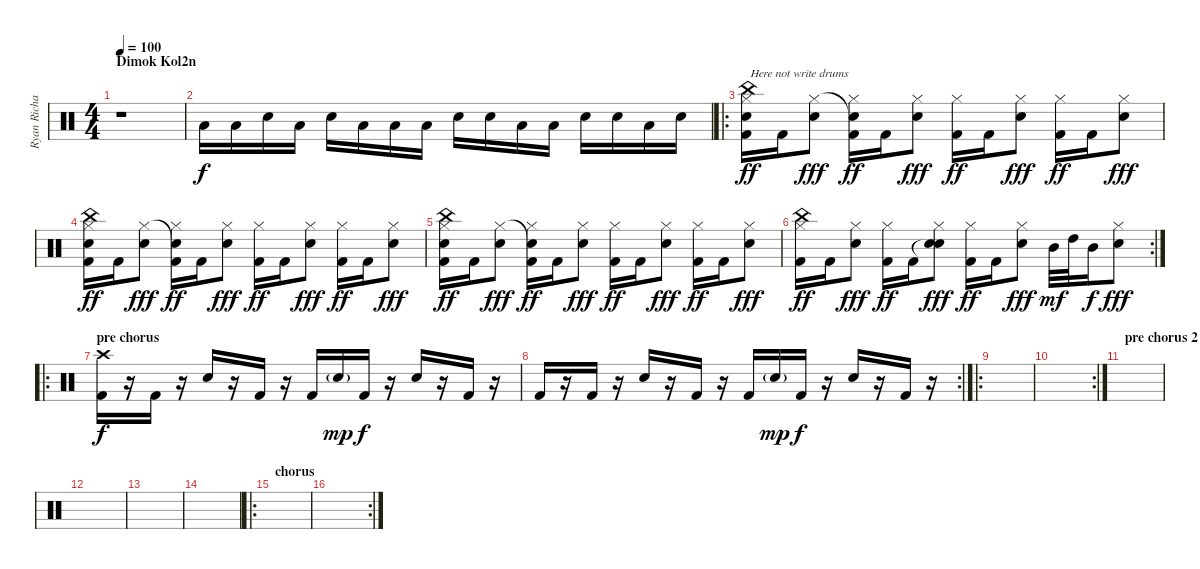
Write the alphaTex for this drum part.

\track ("Ryan Richards" "Ryan Richa") {instrument percussion}
\staff {score}
\articulation defaults
\ts (4 4)
\section ("" "Dimok Kol2n")
\tempo 100
\clef neutral
\ks c
r.1{dy f} |
"Low Tom (hit)".16 "Low Tom (hit)".16 "Snare (hit) 2".16 "Low Tom (hit)".16 "Snare (hit) 2".16 "Low Tom (hit)".16 "Low Tom (hit)".16 "Low Tom (hit)".16 "Snare (hit) 2".16 "Snare (hit) 2".16 "Low Tom (hit)".16 "Low Tom (hit)".16 "Snare (hit) 2".16 "Snare (hit) 2".16 "Low Tom (hit)".16 "Snare (hit) 2".16 |
\ro
("China (hit)" "Hi-Hat (closed)" "Snare (hit) 2" "Kick (hit) 2").16{txt "Here not write drums" dy ff} "Kick (hit) 2".16 ("Hi-Hat (closed)" "Electric Snare (hit)").8{dy fff} ("Snare (hit)"{t} "Hi-Hat (closed)" "Kick (hit) 2").16{dy ff} "Kick (hit) 2".16 ("Hi-Hat (closed)" "Electric Snare (hit)").8{dy fff} ("Hi-Hat (closed)" "Kick (hit) 2").16{dy ff} "Kick (hit) 2".16 ("Hi-Hat (closed)" "Electric Snare (hit)").8{dy fff} ("Hi-Hat (closed)" "Kick (hit) 2").16{dy ff} "Kick (hit) 2".16 ("Hi-Hat (closed)" "Electric Snare (hit)").8{dy fff} |
("China (hit)" "Hi-Hat (closed)" "Snare (hit) 2" "Kick (hit) 2").16{dy ff} "Kick (hit) 2".16 ("Hi-Hat (closed)" "Electric Snare (hit)").8{dy fff} ("Snare (hit)"{t} "Hi-Hat (closed)" "Kick (hit) 2").16{dy ff} "Kick (hit) 2".16 ("Hi-Hat (closed)" "Electric Snare (hit)").8{dy fff} ("Hi-Hat (closed)" "Kick (hit) 2").16{dy ff} "Kick (hit) 2".16 ("Hi-Hat (closed)" "Electric Snare (hit)").8{dy fff} ("Hi-Hat (closed)" "Kick (hit) 2").16{dy ff} "Kick (hit) 2".16 ("Hi-Hat (closed)" "Electric Snare (hit)").8{dy fff} |
("China (hit)" "Hi-Hat (closed)" "Snare (hit) 2" "Kick (hit) 2").16{dy ff} "Kick (hit) 2".16 ("Hi-Hat (closed)" "Electric Snare (hit)").8{dy fff} ("Snare (hit)"{t} "Hi-Hat (closed)" "Kick (hit) 2").16{dy ff} "Kick (hit) 2".16 ("Hi-Hat (closed)" "Electric Snare (hit)").8{dy fff} ("Hi-Hat (closed)" "Kick (hit) 2").16{dy ff} "Kick (hit) 2".16 ("Hi-Hat (closed)" "Electric Snare (hit)").8{dy fff} ("Hi-Hat (closed)" "Kick (hit) 2").16{dy ff} "Kick (hit) 2".16 ("Hi-Hat (closed)" "Electric Snare (hit)").8{dy fff} |
\rc 2
("China (hit)" "Hi-Hat (closed)" "Kick (hit) 2").16{dy ff} "Kick (hit) 2".16 ("Hi-Hat (closed)" "Electric Snare (hit)").8{dy fff} ("Hi-Hat (closed)" "Kick (hit) 2").16{dy ff} "Kick (hit) 2".16 ("Snare (hit)"{t} "Hi-Hat (closed)" "Electric Snare (hit)").8{dy fff} ("Hi-Hat (closed)" "Kick (hit) 2").16{dy ff} "Kick (hit) 2".16 ("Hi-Hat (closed)" "Electric Snare (hit)").8{dy fff} "Mid Tom (hit)".32{dy mf} "High Tom (hit)".32 "Mid Tom (hit)".16{dy f} ("Hi-Hat (closed)" "Electric Snare (hit)").8{dy fff} |
\ro
\section ("" "pre chorus")
("Crash high (hit)" "Kick (hit) 2").16{dy f} r.16 "Kick (hit) 2".16 r.16 "Snare (hit) 2".16 r.16 "Kick (hit) 2".16 r.16 "Kick (hit) 2".16 "Snare (hit) 2"{g}.16{dy mp} "Kick (hit) 2".16{dy f} r.16 "Snare (hit) 2".16 r.16 "Kick (hit) 2".16 r.16 |
\rc 2 "Kick (hit) 2".16
r.16 "Kick (hit) 2".16 r.16 "Snare (hit) 2".16 r.16 "Kick (hit) 2".16 r.16 "Kick (hit) 2".16 "Snare (hit) 2"{g}.16{dy mp} "Kick (hit) 2".16{dy f} r.16 "Snare (hit) 2".16 r.16 "Kick (hit) 2".16 r.16 |
\ro
|
\rc 2
|
\section ("" "pre chorus 2")
|
|
|
|
\ro
\section ("" "chorus")
|
\rc 2
